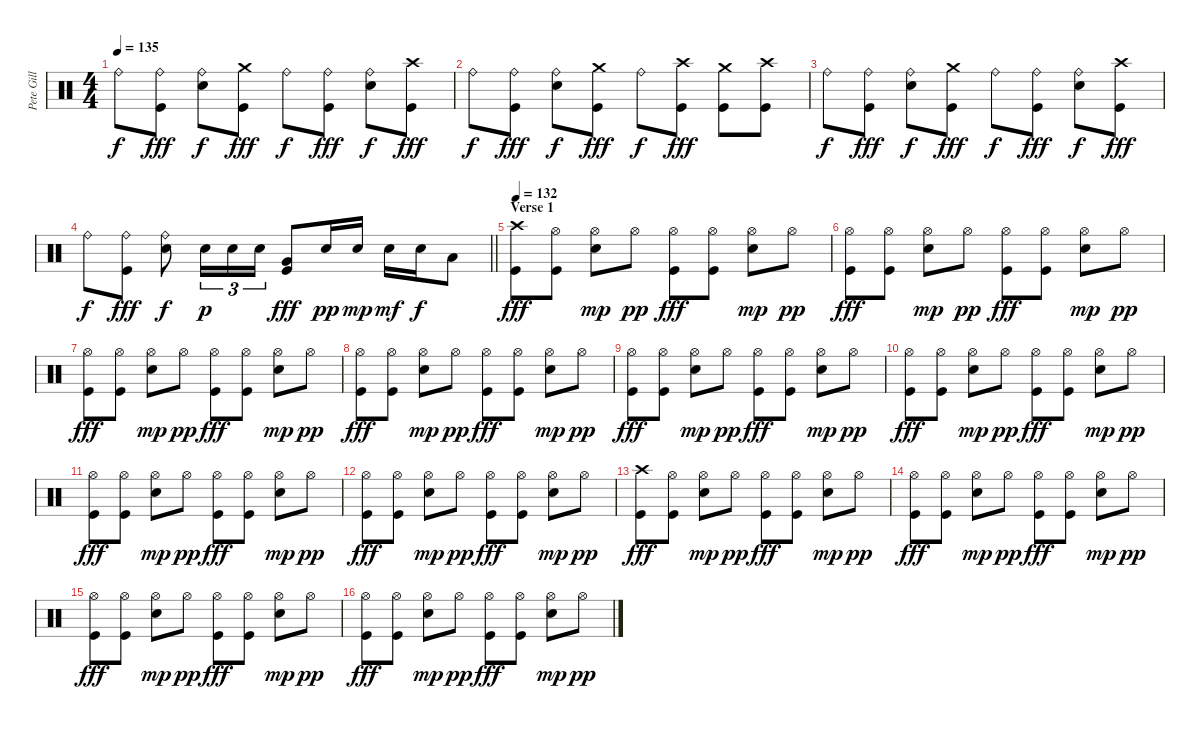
\track ("Pete Gill" "Pete Gill") {instrument percussion}
\staff {score}
\articulation defaults
\ts (4 4)
\tempo 135
\clef neutral
\ks c "Ride (bell)".8{dy f}
("Ride (bell)" "Kick (hit)").8{dy fff} ("Ride (bell)" "Electric Snare (hit)").8{dy f} ("Crash medium (hit)" "Kick (hit)").8{dy fff} "Ride (bell)".8{dy f} ("Ride (bell)" "Kick (hit)").8{dy fff} ("Ride (bell)" "Electric Snare (hit)").8{dy f} ("Crash high (hit)" "Kick (hit)").8{dy fff} |
"Ride (bell)".8{dy f} ("Ride (bell)" "Kick (hit)").8{dy fff} ("Ride (bell)" "Electric Snare (hit)").8{dy f} ("Crash medium (hit)" "Kick (hit)").8{dy fff} "Ride (bell)".8{dy f} ("Crash high (hit)" "Kick (hit)").8{dy fff} ("Crash medium (hit)" "Kick (hit)").8 ("Crash high (hit)" "Kick (hit)").8 |
"Ride (bell)".8{dy f} ("Ride (bell)" "Kick (hit)").8{dy fff} ("Ride (bell)" "Electric Snare (hit)").8{dy f} ("Crash medium (hit)" "Kick (hit)").8{dy fff} "Ride (bell)".8{dy f} ("Ride (bell)" "Kick (hit)").8{dy fff} ("Ride (bell)" "Electric Snare (hit)").8{dy f} ("Crash high (hit)" "Kick (hit)").8{dy fff} |
\barLineRight lightlight "Ride (bell)".8{dy f}
("Ride (bell)" "Kick (hit)").8{dy fff} ("Ride (bell)" "Electric Snare (hit)").8{dy f} "Electric Snare (hit)".16{tu (3 2) dy p} "Electric Snare (hit)".16{tu (3 2)} "Electric Snare (hit)".16{tu (3 2)} ("Very Low Tom (hit)" "Kick (hit)").8{dy fff} "Electric Snare (hit)".16{dy pp} "Electric Snare (hit)".16{dy mp} "Electric Snare (hit)".16{dy mf} "Electric Snare (hit)".16{dy f} "Low Tom (hit)".8 |
\section ("" "Verse 1")
\tempo 132
("Crash high (hit)" "Kick (hit)").8{dy fff} ("Hi-Hat (open)" "Kick (hit)").8 ("Hi-Hat (open)" "Electric Snare (hit)").8{dy mp} "Hi-Hat (open)".8{dy pp} ("Hi-Hat (open)" "Kick (hit)").8{dy fff} ("Hi-Hat (open)" "Kick (hit)").8 ("Hi-Hat (open)" "Electric Snare (hit)").8{dy mp} "Hi-Hat (open)".8{dy pp} |
("Hi-Hat (open)" "Kick (hit)").8{dy fff} ("Hi-Hat (open)" "Kick (hit)").8 ("Hi-Hat (open)" "Electric Snare (hit)").8{dy mp} "Hi-Hat (open)".8{dy pp} ("Hi-Hat (open)" "Kick (hit)").8{dy fff} ("Hi-Hat (open)" "Kick (hit)").8 ("Hi-Hat (open)" "Electric Snare (hit)").8{dy mp} "Hi-Hat (open)".8{dy pp} |
("Hi-Hat (open)" "Kick (hit)").8{dy fff} ("Hi-Hat (open)" "Kick (hit)").8 ("Hi-Hat (open)" "Electric Snare (hit)").8{dy mp} "Hi-Hat (open)".8{dy pp} ("Hi-Hat (open)" "Kick (hit)").8{dy fff} ("Hi-Hat (open)" "Kick (hit)").8 ("Hi-Hat (open)" "Electric Snare (hit)").8{dy mp} "Hi-Hat (open)".8{dy pp} |
("Hi-Hat (open)" "Kick (hit)").8{dy fff} ("Hi-Hat (open)" "Kick (hit)").8 ("Hi-Hat (open)" "Electric Snare (hit)").8{dy mp} "Hi-Hat (open)".8{dy pp} ("Hi-Hat (open)" "Kick (hit)").8{dy fff} ("Hi-Hat (open)" "Kick (hit)").8 ("Hi-Hat (open)" "Electric Snare (hit)").8{dy mp} "Hi-Hat (open)".8{dy pp} |
("Hi-Hat (open)" "Kick (hit)").8{dy fff} ("Hi-Hat (open)" "Kick (hit)").8 ("Hi-Hat (open)" "Electric Snare (hit)").8{dy mp} "Hi-Hat (open)".8{dy pp} ("Hi-Hat (open)" "Kick (hit)").8{dy fff} ("Hi-Hat (open)" "Kick (hit)").8 ("Hi-Hat (open)" "Electric Snare (hit)").8{dy mp} "Hi-Hat (open)".8{dy pp} |
("Hi-Hat (open)" "Kick (hit)").8{dy fff} ("Hi-Hat (open)" "Kick (hit)").8 ("Hi-Hat (open)" "Electric Snare (hit)").8{dy mp} "Hi-Hat (open)".8{dy pp} ("Hi-Hat (open)" "Kick (hit)").8{dy fff} ("Hi-Hat (open)" "Kick (hit)").8 ("Hi-Hat (open)" "Electric Snare (hit)").8{dy mp} "Hi-Hat (open)".8{dy pp} |
("Hi-Hat (open)" "Kick (hit)").8{dy fff} ("Hi-Hat (open)" "Kick (hit)").8 ("Hi-Hat (open)" "Electric Snare (hit)").8{dy mp} "Hi-Hat (open)".8{dy pp} ("Hi-Hat (open)" "Kick (hit)").8{dy fff} ("Hi-Hat (open)" "Kick (hit)").8 ("Hi-Hat (open)" "Electric Snare (hit)").8{dy mp} "Hi-Hat (open)".8{dy pp} |
("Hi-Hat (open)" "Kick (hit)").8{dy fff} ("Hi-Hat (open)" "Kick (hit)").8 ("Hi-Hat (open)" "Electric Snare (hit)").8{dy mp} "Hi-Hat (open)".8{dy pp} ("Hi-Hat (open)" "Kick (hit)").8{dy fff} ("Hi-Hat (open)" "Kick (hit)").8 ("Hi-Hat (open)" "Electric Snare (hit)").8{dy mp} "Hi-Hat (open)".8{dy pp} |
("Crash high (hit)" "Kick (hit)").8{dy fff} ("Hi-Hat (open)" "Kick (hit)").8 ("Hi-Hat (open)" "Electric Snare (hit)").8{dy mp} "Hi-Hat (open)".8{dy pp} ("Hi-Hat (open)" "Kick (hit)").8{dy fff} ("Hi-Hat (open)" "Kick (hit)").8 ("Hi-Hat (open)" "Electric Snare (hit)").8{dy mp} "Hi-Hat (open)".8{dy pp} |
("Hi-Hat (open)" "Kick (hit)").8{dy fff} ("Hi-Hat (open)" "Kick (hit)").8 ("Hi-Hat (open)" "Electric Snare (hit)").8{dy mp} "Hi-Hat (open)".8{dy pp} ("Hi-Hat (open)" "Kick (hit)").8{dy fff} ("Hi-Hat (open)" "Kick (hit)").8 ("Hi-Hat (open)" "Electric Snare (hit)").8{dy mp} "Hi-Hat (open)".8{dy pp} |
("Hi-Hat (open)" "Kick (hit)").8{dy fff} ("Hi-Hat (open)" "Kick (hit)").8 ("Hi-Hat (open)" "Electric Snare (hit)").8{dy mp} "Hi-Hat (open)".8{dy pp} ("Hi-Hat (open)" "Kick (hit)").8{dy fff} ("Hi-Hat (open)" "Kick (hit)").8 ("Hi-Hat (open)" "Electric Snare (hit)").8{dy mp} "Hi-Hat (open)".8{dy pp} |
("Hi-Hat (open)" "Kick (hit)").8{dy fff} ("Hi-Hat (open)" "Kick (hit)").8 ("Hi-Hat (open)" "Electric Snare (hit)").8{dy mp} "Hi-Hat (open)".8{dy pp} ("Hi-Hat (open)" "Kick (hit)").8{dy fff} ("Hi-Hat (open)" "Kick (hit)").8 ("Hi-Hat (open)" "Electric Snare (hit)").8{dy mp} "Hi-Hat (open)".8{dy pp}
